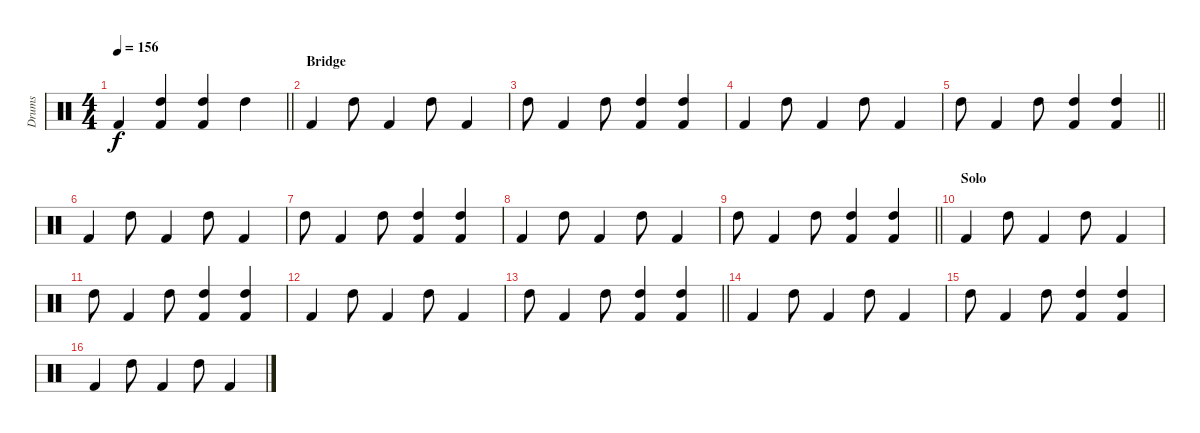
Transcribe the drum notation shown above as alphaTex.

\track ("Drums" "Drums") {instrument percussion}
\staff
\articulation defaults
\ts (4 4)
\tempo 156
\clef neutral
\barLineRight lightlight
\ks c "Kick (hit) 2".4{dy f}
("High Tom (hit)" "Kick (hit) 2").4 ("High Tom (hit)" "Kick (hit) 2").4 "High Tom (hit)".4 |
\section ("" "Bridge")
"Kick (hit) 2".4 "High Tom (hit)".8 "Kick (hit) 2".4 "High Tom (hit)".8 "Kick (hit) 2".4 |
"High Tom (hit)".8 "Kick (hit) 2".4 "High Tom (hit)".8 ("High Tom (hit)" "Kick (hit) 2").4 ("High Tom (hit)" "Kick (hit) 2").4 |
"Kick (hit) 2".4 "High Tom (hit)".8 "Kick (hit) 2".4 "High Tom (hit)".8 "Kick (hit) 2".4 |
\barLineRight lightlight "High Tom (hit)".8 "Kick (hit) 2".4 "High Tom (hit)".8
("High Tom (hit)" "Kick (hit) 2").4 ("High Tom (hit)" "Kick (hit) 2").4 |
"Kick (hit) 2".4 "High Tom (hit)".8 "Kick (hit) 2".4 "High Tom (hit)".8 "Kick (hit) 2".4 |
"High Tom (hit)".8 "Kick (hit) 2".4 "High Tom (hit)".8 ("High Tom (hit)" "Kick (hit) 2").4 ("High Tom (hit)" "Kick (hit) 2").4 |
"Kick (hit) 2".4 "High Tom (hit)".8 "Kick (hit) 2".4 "High Tom (hit)".8 "Kick (hit) 2".4 |
\barLineRight lightlight "High Tom (hit)".8 "Kick (hit) 2".4 "High Tom (hit)".8
("High Tom (hit)" "Kick (hit) 2").4 ("High Tom (hit)" "Kick (hit) 2").4 |
\section ("" "Solo")
"Kick (hit) 2".4 "High Tom (hit)".8 "Kick (hit) 2".4 "High Tom (hit)".8 "Kick (hit) 2".4 |
"High Tom (hit)".8 "Kick (hit) 2".4 "High Tom (hit)".8 ("High Tom (hit)" "Kick (hit) 2").4 ("High Tom (hit)" "Kick (hit) 2").4 |
"Kick (hit) 2".4 "High Tom (hit)".8 "Kick (hit) 2".4 "High Tom (hit)".8 "Kick (hit) 2".4 |
\barLineRight lightlight "High Tom (hit)".8 "Kick (hit) 2".4 "High Tom (hit)".8
("High Tom (hit)" "Kick (hit) 2").4 ("High Tom (hit)" "Kick (hit) 2").4 |
"Kick (hit) 2".4 "High Tom (hit)".8 "Kick (hit) 2".4 "High Tom (hit)".8 "Kick (hit) 2".4 |
"High Tom (hit)".8 "Kick (hit) 2".4 "High Tom (hit)".8 ("High Tom (hit)" "Kick (hit) 2").4 ("High Tom (hit)" "Kick (hit) 2").4 |
"Kick (hit) 2".4 "High Tom (hit)".8 "Kick (hit) 2".4 "High Tom (hit)".8 "Kick (hit) 2".4
